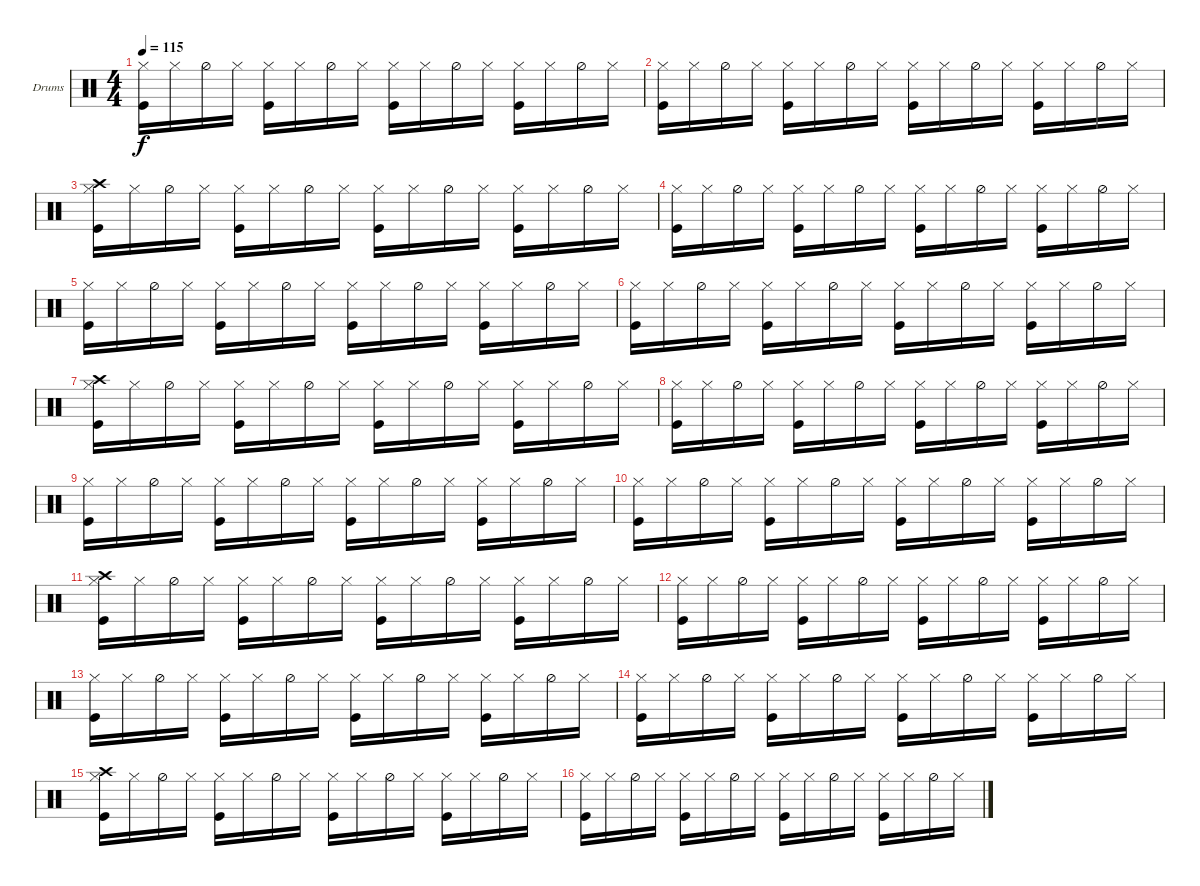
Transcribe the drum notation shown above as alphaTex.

\defaultSystemsLayout 4
\bracketExtendMode groupsimilarinstruments
\firstSystemTrackNameOrientation horizontal
\otherSystemsTrackNameOrientation horizontal
\track ("Drumkit" "Drums") {instrument percussion}
\staff {score}
\articulation defaults
\ts (4 4)
\tempo 115
\clef neutral
\ks c
("Hi-Hat (closed)" "Kick (hit)").16{dy f} "Hi-Hat (closed)".16 "Hi-Hat (half)".16 "Hi-Hat (closed)".16 ("Hi-Hat (closed)" "Kick (hit)").16 "Hi-Hat (closed)".16 "Hi-Hat (half)".16 "Hi-Hat (closed)".16 ("Hi-Hat (closed)" "Kick (hit)").16 "Hi-Hat (closed)".16 "Hi-Hat (half)".16 "Hi-Hat (closed)".16 ("Hi-Hat (closed)" "Kick (hit)").16 "Hi-Hat (closed)".16 "Hi-Hat (half)".16 "Hi-Hat (closed)".16 |
("Hi-Hat (closed)" "Kick (hit)").16 "Hi-Hat (closed)".16 "Hi-Hat (half)".16 "Hi-Hat (closed)".16 ("Hi-Hat (closed)" "Kick (hit)").16 "Hi-Hat (closed)".16 "Hi-Hat (half)".16 "Hi-Hat (closed)".16 ("Hi-Hat (closed)" "Kick (hit)").16 "Hi-Hat (closed)".16 "Hi-Hat (half)".16 "Hi-Hat (closed)".16 ("Hi-Hat (closed)" "Kick (hit)").16 "Hi-Hat (closed)".16 "Hi-Hat (half)".16 "Hi-Hat (closed)".16 |
("Hi-Hat (closed)" "Kick (hit)" "Crash high (hit)").16 "Hi-Hat (closed)".16 "Hi-Hat (half)".16 "Hi-Hat (closed)".16 ("Hi-Hat (closed)" "Kick (hit)").16 "Hi-Hat (closed)".16 "Hi-Hat (half)".16 "Hi-Hat (closed)".16 ("Hi-Hat (closed)" "Kick (hit)").16 "Hi-Hat (closed)".16 "Hi-Hat (half)".16 "Hi-Hat (closed)".16 ("Hi-Hat (closed)" "Kick (hit)").16 "Hi-Hat (closed)".16 "Hi-Hat (half)".16 "Hi-Hat (closed)".16 |
("Hi-Hat (closed)" "Kick (hit)").16 "Hi-Hat (closed)".16 "Hi-Hat (half)".16 "Hi-Hat (closed)".16 ("Hi-Hat (closed)" "Kick (hit)").16 "Hi-Hat (closed)".16 "Hi-Hat (half)".16 "Hi-Hat (closed)".16 ("Hi-Hat (closed)" "Kick (hit)").16 "Hi-Hat (closed)".16 "Hi-Hat (half)".16 "Hi-Hat (closed)".16 ("Hi-Hat (closed)" "Kick (hit)").16 "Hi-Hat (closed)".16 "Hi-Hat (half)".16 "Hi-Hat (closed)".16 |
("Hi-Hat (closed)" "Kick (hit)").16 "Hi-Hat (closed)".16 "Hi-Hat (half)".16 "Hi-Hat (closed)".16 ("Hi-Hat (closed)" "Kick (hit)").16 "Hi-Hat (closed)".16 "Hi-Hat (half)".16 "Hi-Hat (closed)".16 ("Hi-Hat (closed)" "Kick (hit)").16 "Hi-Hat (closed)".16 "Hi-Hat (half)".16 "Hi-Hat (closed)".16 ("Hi-Hat (closed)" "Kick (hit)").16 "Hi-Hat (closed)".16 "Hi-Hat (half)".16 "Hi-Hat (closed)".16 |
("Hi-Hat (closed)" "Kick (hit)").16 "Hi-Hat (closed)".16 "Hi-Hat (half)".16 "Hi-Hat (closed)".16 ("Hi-Hat (closed)" "Kick (hit)").16 "Hi-Hat (closed)".16 "Hi-Hat (half)".16 "Hi-Hat (closed)".16 ("Hi-Hat (closed)" "Kick (hit)").16 "Hi-Hat (closed)".16 "Hi-Hat (half)".16 "Hi-Hat (closed)".16 ("Hi-Hat (closed)" "Kick (hit)").16 "Hi-Hat (closed)".16 "Hi-Hat (half)".16 "Hi-Hat (closed)".16 |
("Hi-Hat (closed)" "Kick (hit)" "Crash high (hit)").16 "Hi-Hat (closed)".16 "Hi-Hat (half)".16 "Hi-Hat (closed)".16 ("Hi-Hat (closed)" "Kick (hit)").16 "Hi-Hat (closed)".16 "Hi-Hat (half)".16 "Hi-Hat (closed)".16 ("Hi-Hat (closed)" "Kick (hit)").16 "Hi-Hat (closed)".16 "Hi-Hat (half)".16 "Hi-Hat (closed)".16 ("Hi-Hat (closed)" "Kick (hit)").16 "Hi-Hat (closed)".16 "Hi-Hat (half)".16 "Hi-Hat (closed)".16 |
("Hi-Hat (closed)" "Kick (hit)").16 "Hi-Hat (closed)".16 "Hi-Hat (half)".16 "Hi-Hat (closed)".16 ("Hi-Hat (closed)" "Kick (hit)").16 "Hi-Hat (closed)".16 "Hi-Hat (half)".16 "Hi-Hat (closed)".16 ("Hi-Hat (closed)" "Kick (hit)").16 "Hi-Hat (closed)".16 "Hi-Hat (half)".16 "Hi-Hat (closed)".16 ("Hi-Hat (closed)" "Kick (hit)").16 "Hi-Hat (closed)".16 "Hi-Hat (half)".16 "Hi-Hat (closed)".16 |
("Hi-Hat (closed)" "Kick (hit)").16 "Hi-Hat (closed)".16 "Hi-Hat (half)".16 "Hi-Hat (closed)".16 ("Hi-Hat (closed)" "Kick (hit)").16 "Hi-Hat (closed)".16 "Hi-Hat (half)".16 "Hi-Hat (closed)".16 ("Hi-Hat (closed)" "Kick (hit)").16 "Hi-Hat (closed)".16 "Hi-Hat (half)".16 "Hi-Hat (closed)".16 ("Hi-Hat (closed)" "Kick (hit)").16 "Hi-Hat (closed)".16 "Hi-Hat (half)".16 "Hi-Hat (closed)".16 |
("Hi-Hat (closed)" "Kick (hit)").16 "Hi-Hat (closed)".16 "Hi-Hat (half)".16 "Hi-Hat (closed)".16 ("Hi-Hat (closed)" "Kick (hit)").16 "Hi-Hat (closed)".16 "Hi-Hat (half)".16 "Hi-Hat (closed)".16 ("Hi-Hat (closed)" "Kick (hit)").16 "Hi-Hat (closed)".16 "Hi-Hat (half)".16 "Hi-Hat (closed)".16 ("Hi-Hat (closed)" "Kick (hit)").16 "Hi-Hat (closed)".16 "Hi-Hat (half)".16 "Hi-Hat (closed)".16 |
("Hi-Hat (closed)" "Kick (hit)" "Crash high (hit)").16 "Hi-Hat (closed)".16 "Hi-Hat (half)".16 "Hi-Hat (closed)".16 ("Hi-Hat (closed)" "Kick (hit)").16 "Hi-Hat (closed)".16 "Hi-Hat (half)".16 "Hi-Hat (closed)".16 ("Hi-Hat (closed)" "Kick (hit)").16 "Hi-Hat (closed)".16 "Hi-Hat (half)".16 "Hi-Hat (closed)".16 ("Hi-Hat (closed)" "Kick (hit)").16 "Hi-Hat (closed)".16 "Hi-Hat (half)".16 "Hi-Hat (closed)".16 |
("Hi-Hat (closed)" "Kick (hit)").16 "Hi-Hat (closed)".16 "Hi-Hat (half)".16 "Hi-Hat (closed)".16 ("Hi-Hat (closed)" "Kick (hit)").16 "Hi-Hat (closed)".16 "Hi-Hat (half)".16 "Hi-Hat (closed)".16 ("Hi-Hat (closed)" "Kick (hit)").16 "Hi-Hat (closed)".16 "Hi-Hat (half)".16 "Hi-Hat (closed)".16 ("Hi-Hat (closed)" "Kick (hit)").16 "Hi-Hat (closed)".16 "Hi-Hat (half)".16 "Hi-Hat (closed)".16 |
("Hi-Hat (closed)" "Kick (hit)").16 "Hi-Hat (closed)".16 "Hi-Hat (half)".16 "Hi-Hat (closed)".16 ("Hi-Hat (closed)" "Kick (hit)").16 "Hi-Hat (closed)".16 "Hi-Hat (half)".16 "Hi-Hat (closed)".16 ("Hi-Hat (closed)" "Kick (hit)").16 "Hi-Hat (closed)".16 "Hi-Hat (half)".16 "Hi-Hat (closed)".16 ("Hi-Hat (closed)" "Kick (hit)").16 "Hi-Hat (closed)".16 "Hi-Hat (half)".16 "Hi-Hat (closed)".16 |
("Hi-Hat (closed)" "Kick (hit)").16 "Hi-Hat (closed)".16 "Hi-Hat (half)".16 "Hi-Hat (closed)".16 ("Hi-Hat (closed)" "Kick (hit)").16 "Hi-Hat (closed)".16 "Hi-Hat (half)".16 "Hi-Hat (closed)".16 ("Hi-Hat (closed)" "Kick (hit)").16 "Hi-Hat (closed)".16 "Hi-Hat (half)".16 "Hi-Hat (closed)".16 ("Hi-Hat (closed)" "Kick (hit)").16 "Hi-Hat (closed)".16 "Hi-Hat (half)".16 "Hi-Hat (closed)".16 |
("Hi-Hat (closed)" "Kick (hit)" "Crash high (hit)").16 "Hi-Hat (closed)".16 "Hi-Hat (half)".16 "Hi-Hat (closed)".16 ("Hi-Hat (closed)" "Kick (hit)").16 "Hi-Hat (closed)".16 "Hi-Hat (half)".16 "Hi-Hat (closed)".16 ("Hi-Hat (closed)" "Kick (hit)").16 "Hi-Hat (closed)".16 "Hi-Hat (half)".16 "Hi-Hat (closed)".16 ("Hi-Hat (closed)" "Kick (hit)").16 "Hi-Hat (closed)".16 "Hi-Hat (half)".16 "Hi-Hat (closed)".16 |
("Hi-Hat (closed)" "Kick (hit)").16 "Hi-Hat (closed)".16 "Hi-Hat (half)".16 "Hi-Hat (closed)".16 ("Hi-Hat (closed)" "Kick (hit)").16 "Hi-Hat (closed)".16 "Hi-Hat (half)".16 "Hi-Hat (closed)".16 ("Hi-Hat (closed)" "Kick (hit)").16 "Hi-Hat (closed)".16 "Hi-Hat (half)".16 "Hi-Hat (closed)".16 ("Hi-Hat (closed)" "Kick (hit)").16 "Hi-Hat (closed)".16 "Hi-Hat (half)".16 "Hi-Hat (closed)".16
